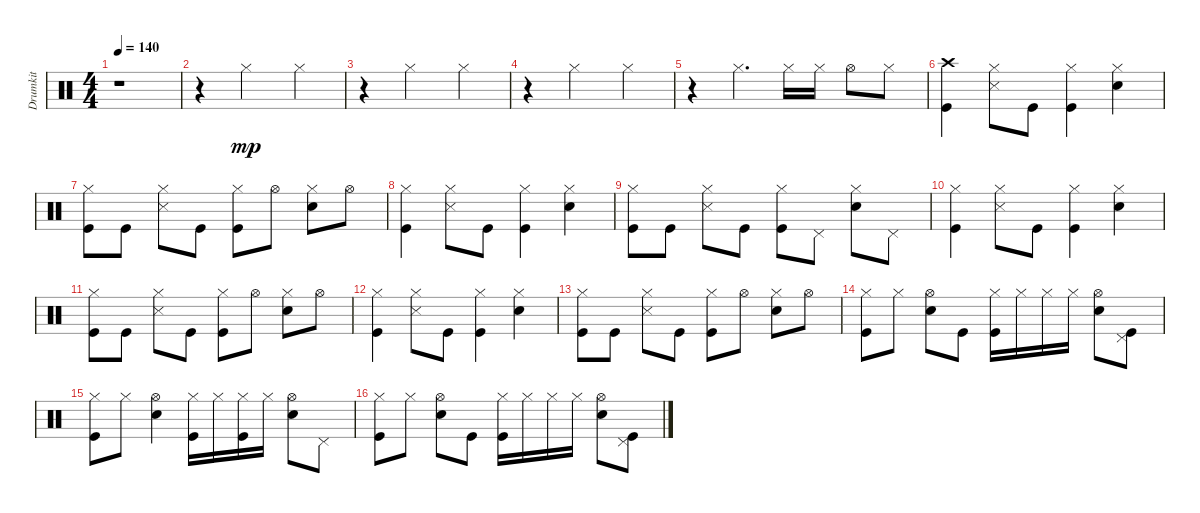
\track ("Drumkit" "Drumkit") {instrument percussion}
\staff {score}
\articulation defaults
\ts (4 4)
\tempo 140
\clef neutral
\ks c
r.1{dy mp} |
r.4 "Hi-Hat (closed)".2 "Hi-Hat (closed)".4 |
r.4 "Hi-Hat (closed)".2 "Hi-Hat (closed)".4 |
r.4 "Hi-Hat (closed)".2 "Hi-Hat (closed)".4 |
r.4 "Hi-Hat (closed)".4{d} "Hi-Hat (closed)".16 "Hi-Hat (closed)".16 "Hi-Hat (open)".8 "Hi-Hat (closed)".8 |
("Kick (hit)" "Crash high (hit)").4 ("Snare (side stick) 3" "Hi-Hat (closed)").8 "Kick (hit)".8 ("Kick (hit)" "Hi-Hat (closed)").4 ("Snare (hit) 2" "Hi-Hat (closed)").4 |
("Kick (hit)" "Hi-Hat (closed)").8 "Kick (hit)".8 ("Snare (side stick) 3" "Hi-Hat (closed)").8 "Kick (hit)".8 ("Hi-Hat (closed)" "Kick (hit)").8 "Hi-Hat (open)".8 ("Hi-Hat (closed)" "Snare (hit) 2").8 "Hi-Hat (open)".8 |
("Kick (hit)" "Hi-Hat (closed)").4 ("Snare (side stick) 3" "Hi-Hat (closed)").8 "Kick (hit)".8 ("Kick (hit)" "Hi-Hat (closed)").4 ("Snare (hit) 2" "Hi-Hat (closed)").4 |
("Kick (hit)" "Hi-Hat (closed)").8 "Kick (hit)".8 ("Snare (side stick) 3" "Hi-Hat (closed)").8 "Kick (hit)".8 ("Hi-Hat (closed)" "Kick (hit)").8 "Pedal Hi-Hat (hit)".8 ("Hi-Hat (closed)" "Snare (hit) 2").8 "Pedal Hi-Hat (hit)".8 |
("Kick (hit)" "Hi-Hat (closed)").4 ("Snare (side stick) 3" "Hi-Hat (closed)").8 "Kick (hit)".8 ("Kick (hit)" "Hi-Hat (closed)").4 ("Snare (hit) 2" "Hi-Hat (closed)").4 |
("Kick (hit)" "Hi-Hat (closed)").8 "Kick (hit)".8 ("Snare (side stick) 3" "Hi-Hat (closed)").8 "Kick (hit)".8 ("Hi-Hat (closed)" "Kick (hit)").8 "Hi-Hat (open)".8 ("Hi-Hat (closed)" "Snare (hit) 2").8 "Hi-Hat (open)".8 |
("Kick (hit)" "Hi-Hat (closed)").4 ("Snare (side stick) 3" "Hi-Hat (closed)").8 "Kick (hit)".8 ("Kick (hit)" "Hi-Hat (closed)").4 ("Snare (hit) 2" "Hi-Hat (closed)").4 |
("Kick (hit)" "Hi-Hat (closed)").8 "Kick (hit)".8 ("Snare (side stick) 3" "Hi-Hat (closed)").8 "Kick (hit)".8 ("Hi-Hat (closed)" "Kick (hit)").8 "Hi-Hat (open)".8 ("Hi-Hat (closed)" "Snare (hit) 2").8 "Hi-Hat (open)".8 |
("Hi-Hat (closed)" "Kick (hit)").8 "Hi-Hat (closed)".8 ("Snare (hit) 2" "Hi-Hat (open)").8 "Kick (hit)".8 ("Hi-Hat (closed)" "Kick (hit)").16 "Hi-Hat (closed)".16 "Hi-Hat (closed)".16 "Hi-Hat (closed)".16 ("Hi-Hat (open)" "Snare (hit) 2").8 ("Pedal Hi-Hat (hit)" "Kick (hit)").8 |
("Hi-Hat (closed)" "Kick (hit)").8 "Hi-Hat (closed)".8 ("Snare (hit) 2" "Hi-Hat (open)").4 ("Hi-Hat (closed)" "Kick (hit)").16 "Hi-Hat (closed)".16 ("Hi-Hat (closed)" "Kick (hit)").16 "Hi-Hat (closed)".16 ("Hi-Hat (open)" "Snare (hit) 2").8 "Pedal Hi-Hat (hit)".8 |
("Hi-Hat (closed)" "Kick (hit)").8 "Hi-Hat (closed)".8 ("Snare (hit) 2" "Hi-Hat (open)").8 "Kick (hit)".8 ("Hi-Hat (closed)" "Kick (hit)").16 "Hi-Hat (closed)".16 "Hi-Hat (closed)".16 "Hi-Hat (closed)".16 ("Hi-Hat (open)" "Snare (hit) 2").8 ("Pedal Hi-Hat (hit)" "Kick (hit)").8
